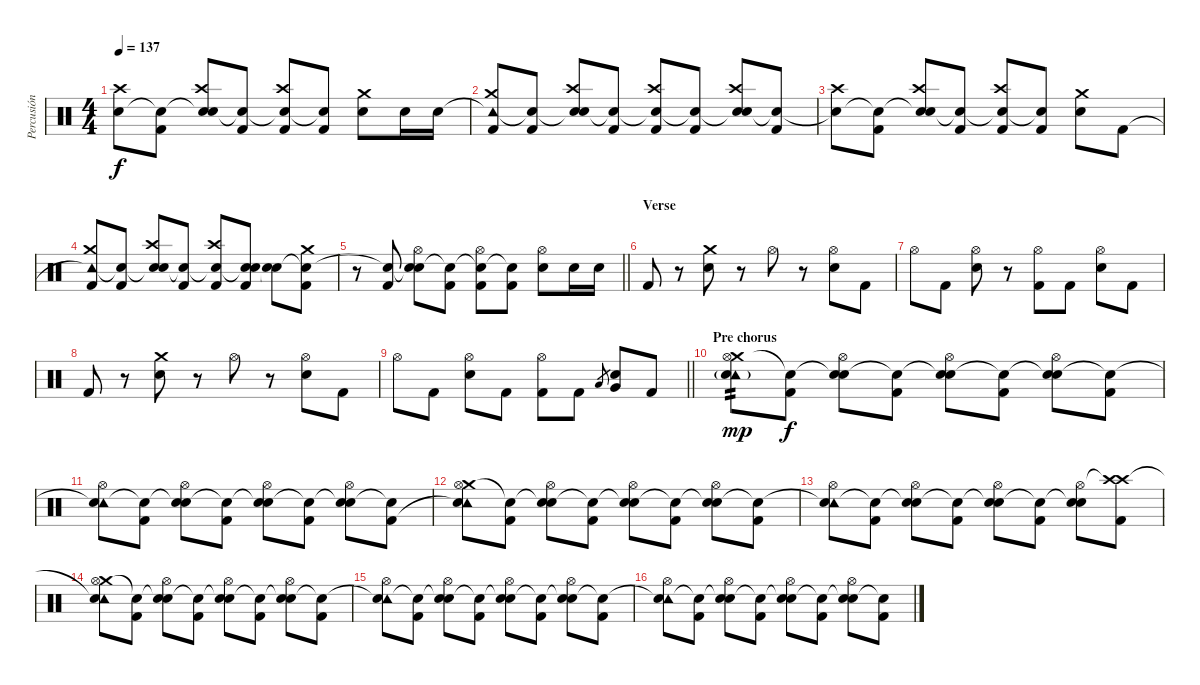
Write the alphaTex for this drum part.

\track ("Percusión" "Percusión") {instrument percussion}
\staff {score}
\articulation defaults
\ts (4 4)
\tempo 137
\clef neutral
\ks c
("Snare (hit)"{t} "Crash high (hit)").8{dy f} ("Snare (hit)"{t} "Kick (hit) 2").8 ("Snare (hit)"{t} "Crash high (hit)" "Electric Snare (hit)").8 ("Snare (hit)"{t} "Kick (hit) 2").8 ("Snare (hit)"{t} "Crash high (hit)" "Kick (hit) 2").8 ("Snare (hit)"{t} "Kick (hit) 2").8 ("Crash medium (hit)" "Electric Snare (hit)").8 "Electric Snare (hit)".16 "Electric Snare (hit)".16 |
("Tambourine (hit)"{t} "Crash medium (hit)" "Kick (hit) 2").8 ("Snare (hit)"{t} "Kick (hit) 2").8 ("Snare (hit)"{t} "Crash high (hit)" "Electric Snare (hit)").8 ("Snare (hit)"{t} "Kick (hit) 2").8 ("Snare (hit)"{t} "Crash high (hit)" "Kick (hit) 2").8 ("Snare (hit)"{t} "Kick (hit) 2").8 ("Snare (hit)"{t} "Crash high (hit)" "Electric Snare (hit)").8 ("Snare (hit)"{t} "Kick (hit) 2").8 |
("Snare (hit)"{t} "Crash high (hit)").8 ("Snare (hit)"{t} "Kick (hit) 2").8 ("Snare (hit)"{t} "Crash high (hit)" "Electric Snare (hit)").8 ("Snare (hit)"{t} "Kick (hit) 2").8 ("Snare (hit)"{t} "Crash high (hit)" "Kick (hit) 2").8 ("Snare (hit)"{t} "Kick (hit) 2").8 ("Crash medium (hit)" "Electric Snare (hit)").8 "Kick (hit) 2".8 |
("Tambourine (hit)"{t} "Crash medium (hit)" "Kick (hit) 2").8 ("Snare (hit)"{t} "Kick (hit) 2").8 ("Snare (hit)"{t} "Crash high (hit)" "Electric Snare (hit)").8 ("Snare (hit)"{t} "Kick (hit) 2").8 ("Snare (hit)"{t} "Crash high (hit)" "Kick (hit) 2").8 ("Snare (hit)"{t} "Electric Snare (hit)" "Kick (hit) 2").8 ("Snare (hit)"{t} "Electric Snare (hit)").8 ("Snare (hit)"{t} "Crash medium (hit)" "Kick (hit) 2").8 |
\barLineRight lightlight
r.8 ("Snare (hit)"{t} "Kick (hit) 2").8 ("Snare (hit)"{t} "Hi-Hat (open)" "Electric Snare (hit)").8 ("Snare (hit)"{t} "Kick (hit) 2").8 ("Snare (hit)"{t} "Hi-Hat (open)" "Kick (hit) 2").8 ("Snare (hit)"{t} "Kick (hit) 2").8 ("Hi-Hat (open)" "Electric Snare (hit)").8 "Electric Snare (hit)".16 "Electric Snare (hit)".16 |
\section ("" "Verse")
"Kick (hit) 2".8 r.8 ("Crash medium (hit)" "Electric Snare (hit)").8 r.8 "Hi-Hat (open)".8 r.8 ("Hi-Hat (open)" "Electric Snare (hit)").8 "Kick (hit) 2".8 |
"Hi-Hat (open)".8 "Kick (hit) 2".8 ("Hi-Hat (open)" "Electric Snare (hit)").8 r.8 ("Hi-Hat (open)" "Kick (hit) 2").8 "Kick (hit) 2".8 ("Hi-Hat (open)" "Electric Snare (hit)").8 "Kick (hit) 2".8 |
"Kick (hit) 2".8 r.8 ("Crash medium (hit)" "Electric Snare (hit)").8 r.8 "Hi-Hat (open)".8 r.8 ("Hi-Hat (open)" "Electric Snare (hit)").8 "Kick (hit) 2".8 |
\barLineRight lightlight "Hi-Hat (open)".8 "Kick (hit) 2".8
("Hi-Hat (open)" "Electric Snare (hit)").8 "Kick (hit) 2".8 ("Hi-Hat (open)" "Kick (hit) 2").8 "Kick (hit) 2".8 "Low Floor Tom (hit)".8{gr} ("Very Low Tom (hit)" "Electric Snare (hit)").8 "Kick (hit) 2".8 |
\section ("" "Pre chorus")
("Crash medium (hit)" "Tambourine (hit)"{g} "Hi-Hat (open)" "Electric Snare (hit)").8{tp 2 dy mp} ("Snare (hit)"{t} "Kick (hit) 2").8{dy f} ("Snare (hit)"{t} "Hi-Hat (open)" "Electric Snare (hit)").8 ("Snare (hit)"{t} "Kick (hit) 2").8 ("Snare (hit)"{t} "Hi-Hat (open)" "Electric Snare (hit)").8 ("Snare (hit)"{t} "Kick (hit) 2").8 ("Snare (hit)"{t} "Hi-Hat (open)" "Electric Snare (hit)").8 ("Snare (hit)"{t} "Kick (hit) 2").8 |
("Tambourine (hit)"{t} "Hi-Hat (open)" "Electric Snare (hit)").8 ("Snare (hit)"{t} "Kick (hit) 2").8 ("Snare (hit)"{t} "Hi-Hat (open)" "Electric Snare (hit)").8 ("Snare (hit)"{t} "Kick (hit) 2").8 ("Snare (hit)"{t} "Hi-Hat (open)" "Electric Snare (hit)").8 ("Snare (hit)"{t} "Kick (hit) 2").8 ("Snare (hit)"{t} "Hi-Hat (open)" "Electric Snare (hit)").8 ("Snare (hit)"{t} "Kick (hit) 2").8 |
("Crash medium (hit)" "Tambourine (hit)"{t} "Hi-Hat (open)" "Electric Snare (hit)").8 ("Snare (hit)"{t} "Kick (hit) 2").8 ("Snare (hit)"{t} "Hi-Hat (open)" "Electric Snare (hit)").8 ("Snare (hit)"{t} "Kick (hit) 2").8 ("Snare (hit)"{t} "Hi-Hat (open)" "Electric Snare (hit)").8 ("Snare (hit)"{t} "Kick (hit) 2").8 ("Snare (hit)"{t} "Hi-Hat (open)" "Electric Snare (hit)").8 ("Snare (hit)"{t} "Kick (hit) 2").8 |
("Tambourine (hit)"{t} "Hi-Hat (open)" "Electric Snare (hit)").8 ("Snare (hit)"{t} "Kick (hit) 2").8 ("Snare (hit)"{t} "Hi-Hat (open)" "Electric Snare (hit)").8 ("Snare (hit)"{t} "Kick (hit) 2").8 ("Snare (hit)"{t} "Hi-Hat (open)" "Electric Snare (hit)").8 ("Snare (hit)"{t} "Kick (hit) 2").8 ("Snare (hit)"{t} "Hi-Hat (open)" "Electric Snare (hit)").8 ("Crash high (hit)" "Crash high (hit)"{t} "Kick (hit) 2").8 |
("Crash medium (hit)" "Tambourine (hit)"{t} "Hi-Hat (open)" "Electric Snare (hit)").8 ("Snare (hit)"{t} "Kick (hit) 2").8 ("Snare (hit)"{t} "Hi-Hat (open)" "Electric Snare (hit)").8 ("Snare (hit)"{t} "Kick (hit) 2").8 ("Snare (hit)"{t} "Hi-Hat (open)" "Electric Snare (hit)").8 ("Snare (hit)"{t} "Kick (hit) 2").8 ("Snare (hit)"{t} "Hi-Hat (open)" "Electric Snare (hit)").8 ("Snare (hit)"{t} "Kick (hit) 2").8 |
("Tambourine (hit)"{t} "Hi-Hat (open)" "Electric Snare (hit)").8 ("Snare (hit)"{t} "Kick (hit) 2").8 ("Snare (hit)"{t} "Hi-Hat (open)" "Electric Snare (hit)").8 ("Snare (hit)"{t} "Kick (hit) 2").8 ("Snare (hit)"{t} "Hi-Hat (open)" "Electric Snare (hit)").8 ("Snare (hit)"{t} "Kick (hit) 2").8 ("Snare (hit)"{t} "Hi-Hat (open)" "Electric Snare (hit)").8 ("Snare (hit)"{t} "Kick (hit) 2").8 |
("Tambourine (hit)"{t} "Hi-Hat (open)" "Electric Snare (hit)").8 ("Snare (hit)"{t} "Kick (hit) 2").8 ("Snare (hit)"{t} "Hi-Hat (open)" "Electric Snare (hit)").8 ("Snare (hit)"{t} "Kick (hit) 2").8 ("Snare (hit)"{t} "Hi-Hat (open)" "Electric Snare (hit)").8 ("Snare (hit)"{t} "Kick (hit) 2").8 ("Snare (hit)"{t} "Hi-Hat (open)" "Electric Snare (hit)").8 ("Snare (hit)"{t} "Kick (hit) 2").8
